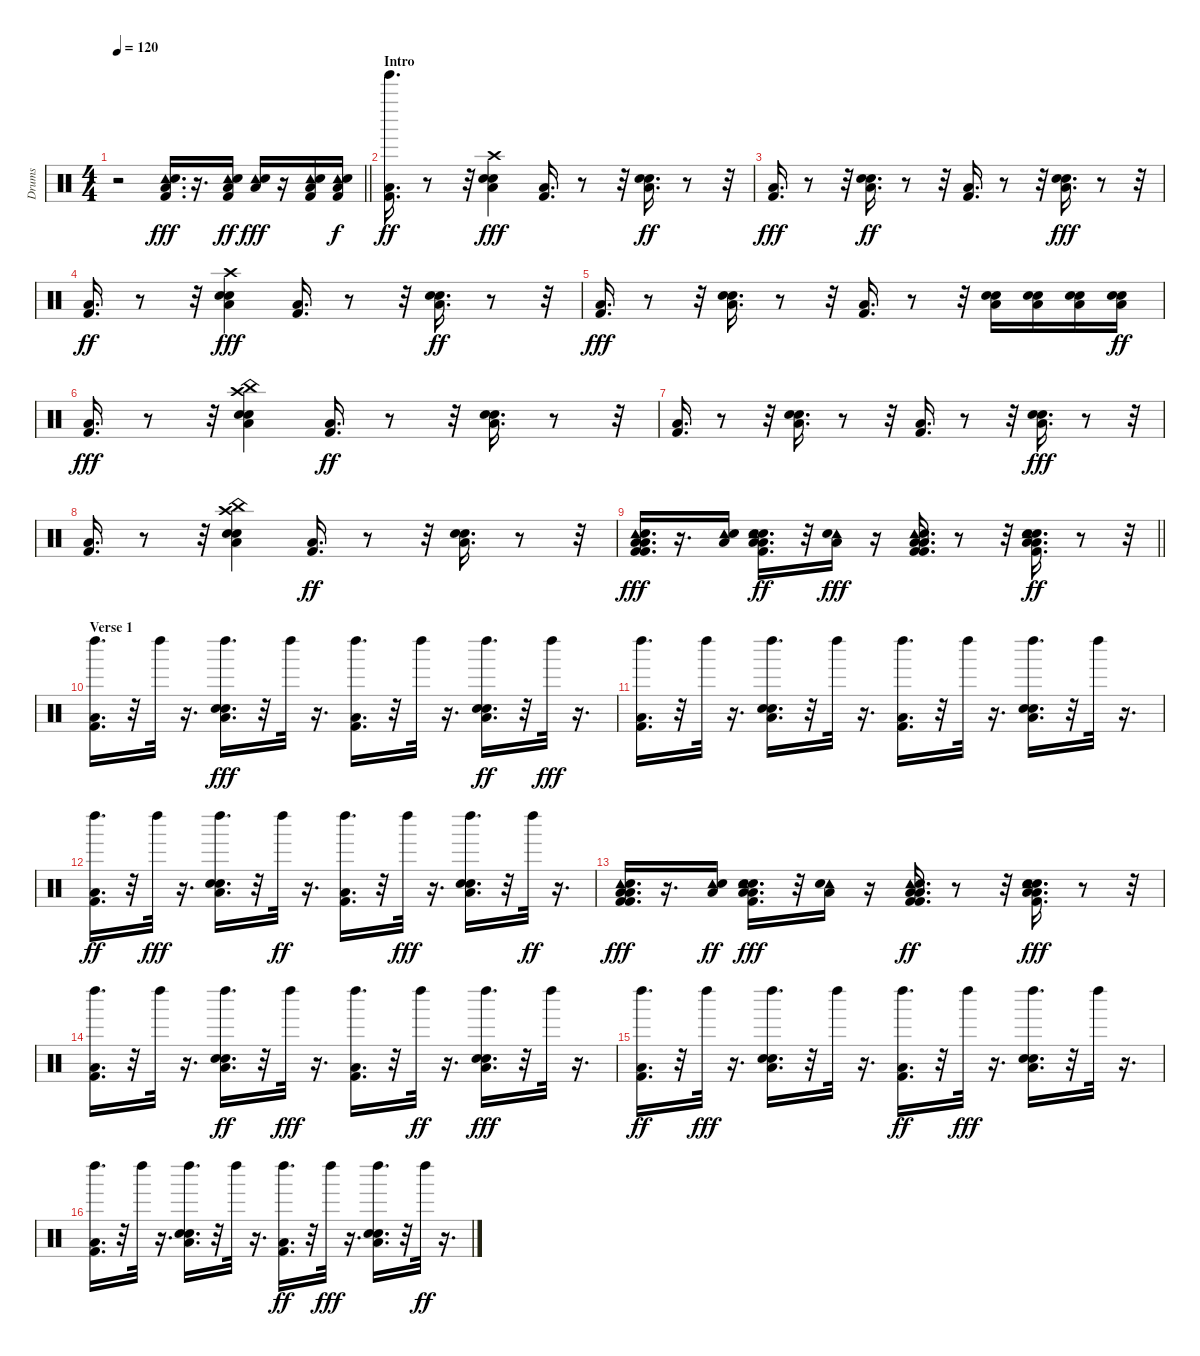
\track ("Drums" "Drums") {instrument percussion}
\staff {score}
\articulation defaults
\ts (4 4)
\tempo 120
\clef neutral
\barLineRight lightlight
\ks c
r.2{dy fff} ("Tambourine (hit)" "Low Floor Tom (hit)" "Snare (hit) 2" "Kick (hit) 2").16{d} r.16{d} ("Tambourine (hit)" "Low Floor Tom (hit)" "Snare (hit) 2" "Kick (hit) 2").16{dy ff} ("Tambourine (hit)" "Snare (hit) 2" "Low Floor Tom (hit)").16{dy fff} r.16 ("Tambourine (hit)" "Kick (hit) 2" "Snare (hit) 2" "Low Floor Tom (hit)").16 ("Tambourine (hit)" "Kick (hit) 2" "Snare (hit) 2" "Low Floor Tom (hit)").16{dy f} |
\section ("" "Intro")
("Tinkle Bell (hit)" "Low Floor Tom (hit)" "Kick (hit) 2").16{d dy ff} r.8 r.32 ("Crash high (hit)" "Electric Snare (hit)" "Low Floor Tom (hit)" "Snare (hit) 2").4{dy fff} ("Low Floor Tom (hit)" "Kick (hit) 2").16{d} r.8 r.32 ("Electric Snare (hit)" "Low Floor Tom (hit)" "Snare (hit) 2").16{d dy ff} r.8 r.32 |
("Low Floor Tom (hit)" "Kick (hit) 2").16{d dy fff} r.8 r.32 ("Electric Snare (hit)" "Low Floor Tom (hit)" "Snare (hit) 2").16{d dy ff} r.8 r.32 ("Low Floor Tom (hit)" "Kick (hit) 2").16{d} r.8 r.32 ("Electric Snare (hit)" "Low Floor Tom (hit)" "Snare (hit) 2").16{d dy fff} r.8 r.32 |
("Low Floor Tom (hit)" "Kick (hit) 2").16{d dy ff} r.8 r.32 ("Crash high (hit)" "Electric Snare (hit)" "Low Floor Tom (hit)" "Snare (hit) 2").4{dy fff} ("Low Floor Tom (hit)" "Kick (hit) 2").16{d} r.8 r.32 ("Electric Snare (hit)" "Low Floor Tom (hit)" "Snare (hit) 2").16{d dy ff} r.8 r.32 |
("Low Floor Tom (hit)" "Kick (hit) 2").16{d dy fff} r.8 r.32 ("Electric Snare (hit)" "Low Floor Tom (hit)" "Snare (hit) 2").16{d} r.8 r.32 ("Low Floor Tom (hit)" "Kick (hit) 2").16{d} r.8 r.32 ("Electric Snare (hit)" "Low Floor Tom (hit)" "Snare (hit) 2").16 ("Electric Snare (hit)" "Snare (hit) 2" "Low Floor Tom (hit)").16 ("Electric Snare (hit)" "Low Floor Tom (hit)" "Snare (hit) 2").16 ("Low Floor Tom (hit)" "Electric Snare (hit)" "Snare (hit) 2").16{dy ff} |
("Low Floor Tom (hit)" "Kick (hit) 2").16{d dy fff} r.8 r.32 ("Crash high (hit)" "China (hit)" "Electric Snare (hit)" "Low Floor Tom (hit)" "Snare (hit) 2").4 ("Low Floor Tom (hit)" "Kick (hit) 2").16{d dy ff} r.8 r.32 ("Electric Snare (hit)" "Low Floor Tom (hit)" "Snare (hit) 2").16{d} r.8 r.32 |
("Low Floor Tom (hit)" "Kick (hit) 2").16{d} r.8 r.32 ("Electric Snare (hit)" "Low Floor Tom (hit)" "Snare (hit) 2").16{d} r.8 r.32 ("Low Floor Tom (hit)" "Kick (hit) 2").16{d} r.8 r.32 ("Electric Snare (hit)" "Low Floor Tom (hit)" "Snare (hit) 2").16{d dy fff} r.8 r.32 |
("Low Floor Tom (hit)" "Kick (hit) 2").16{d} r.8 r.32 ("Crash high (hit)" "China (hit)" "Electric Snare (hit)" "Low Floor Tom (hit)" "Snare (hit) 2").4 ("Low Floor Tom (hit)" "Kick (hit) 2").16{d dy ff} r.8 r.32 ("Electric Snare (hit)" "Low Floor Tom (hit)" "Snare (hit) 2").16{d} r.8 r.32 |
\barLineRight lightlight
("Low Floor Tom (hit)" "Kick (hit) 2" "Tambourine (hit)" "Low Floor Tom (hit)" "Kick (hit) 2" "Snare (hit) 2").16{d dy fff} r.16{d} ("Tambourine (hit)" "Low Floor Tom (hit)" "Snare (hit) 2").16 ("Electric Snare (hit)" "Low Floor Tom (hit)" "Snare (hit) 2" "Tambourine (hit)" "Low Floor Tom (hit)" "Kick (hit) 2").16{d dy ff} r.32 ("Tambourine (hit)" "Low Floor Tom (hit)" "Snare (hit) 2").16{dy fff} r.16 ("Low Floor Tom (hit)" "Kick (hit) 2" "Tambourine (hit)" "Low Floor Tom (hit)" "Kick (hit) 2" "Snare (hit) 2").16{d} r.8 r.32 ("Electric Snare (hit)" "Low Floor Tom (hit)" "Snare (hit) 2" "Tambourine (hit)" "Kick (hit) 2" "Low Floor Tom (hit)").16{d dy ff} r.8 r.32 |
\section ("" "Verse 1")
("Left Maraca (hit)" "Low Floor Tom (hit)" "Kick (hit) 2").16{d} r.32 "Left Maraca (hit)".32 r.16{d} ("Left Maraca (hit)" "Electric Snare (hit)" "Low Floor Tom (hit)" "Snare (hit) 2").16{d dy fff} r.32 "Left Maraca (hit)".32 r.16{d} ("Left Maraca (hit)" "Low Floor Tom (hit)" "Kick (hit) 2").16{d} r.32 "Left Maraca (hit)".32 r.16{d} ("Left Maraca (hit)" "Electric Snare (hit)" "Low Floor Tom (hit)" "Snare (hit) 2").16{d dy ff} r.32 "Left Maraca (hit)".32{dy fff} r.16{d} |
("Left Maraca (hit)" "Low Floor Tom (hit)" "Kick (hit) 2").16{d} r.32 "Left Maraca (hit)".32 r.16{d} ("Left Maraca (hit)" "Electric Snare (hit)" "Low Floor Tom (hit)" "Snare (hit) 2").16{d} r.32 "Left Maraca (hit)".32 r.16{d} ("Left Maraca (hit)" "Low Floor Tom (hit)" "Kick (hit) 2").16{d} r.32 "Left Maraca (hit)".32 r.16{d} ("Left Maraca (hit)" "Electric Snare (hit)" "Low Floor Tom (hit)" "Snare (hit) 2").16{d} r.32 "Left Maraca (hit)".32 r.16{d} |
("Left Maraca (hit)" "Low Floor Tom (hit)" "Kick (hit) 2").16{d dy ff} r.32 "Left Maraca (hit)".32{dy fff} r.16{d} ("Left Maraca (hit)" "Electric Snare (hit)" "Low Floor Tom (hit)" "Snare (hit) 2").16{d} r.32 "Left Maraca (hit)".32{dy ff} r.16{d} ("Left Maraca (hit)" "Low Floor Tom (hit)" "Kick (hit) 2").16{d} r.32 "Left Maraca (hit)".32{dy fff} r.16{d} ("Left Maraca (hit)" "Electric Snare (hit)" "Low Floor Tom (hit)" "Snare (hit) 2").16{d} r.32 "Left Maraca (hit)".32{dy ff} r.16{d} |
("Low Floor Tom (hit)" "Kick (hit) 2" "Tambourine (hit)" "Low Floor Tom (hit)" "Kick (hit) 2" "Snare (hit) 2").16{d dy fff} r.16{d} ("Tambourine (hit)" "Low Floor Tom (hit)" "Snare (hit) 2").16{dy ff} ("Electric Snare (hit)" "Low Floor Tom (hit)" "Snare (hit) 2" "Tambourine (hit)" "Low Floor Tom (hit)" "Kick (hit) 2").16{d dy fff} r.32 ("Tambourine (hit)" "Low Floor Tom (hit)" "Snare (hit) 2").16 r.16 ("Low Floor Tom (hit)" "Kick (hit) 2" "Tambourine (hit)" "Low Floor Tom (hit)" "Kick (hit) 2" "Snare (hit) 2").16{d dy ff} r.8 r.32 ("Electric Snare (hit)" "Low Floor Tom (hit)" "Snare (hit) 2" "Tambourine (hit)" "Kick (hit) 2" "Low Floor Tom (hit)").16{d dy fff} r.8 r.32 |
("Left Maraca (hit)" "Low Floor Tom (hit)" "Kick (hit) 2").16{d} r.32 "Left Maraca (hit)".32 r.16{d} ("Left Maraca (hit)" "Electric Snare (hit)" "Low Floor Tom (hit)" "Snare (hit) 2").16{d dy ff} r.32 "Left Maraca (hit)".32{dy fff} r.16{d} ("Left Maraca (hit)" "Low Floor Tom (hit)" "Kick (hit) 2").16{d} r.32 "Left Maraca (hit)".32{dy ff} r.16{d} ("Left Maraca (hit)" "Electric Snare (hit)" "Low Floor Tom (hit)" "Snare (hit) 2").16{d dy fff} r.32 "Left Maraca (hit)".32 r.16{d} |
("Left Maraca (hit)" "Low Floor Tom (hit)" "Kick (hit) 2").16{d dy ff} r.32 "Left Maraca (hit)".32{dy fff} r.16{d} ("Left Maraca (hit)" "Electric Snare (hit)" "Low Floor Tom (hit)" "Snare (hit) 2").16{d} r.32 "Left Maraca (hit)".32 r.16{d} ("Left Maraca (hit)" "Low Floor Tom (hit)" "Kick (hit) 2").16{d dy ff} r.32 "Left Maraca (hit)".32{dy fff} r.16{d} ("Left Maraca (hit)" "Electric Snare (hit)" "Low Floor Tom (hit)" "Snare (hit) 2").16{d} r.32 "Left Maraca (hit)".32 r.16{d} |
("Left Maraca (hit)" "Low Floor Tom (hit)" "Kick (hit) 2").16{d} r.32 "Left Maraca (hit)".32 r.16{d} ("Left Maraca (hit)" "Electric Snare (hit)" "Low Floor Tom (hit)" "Snare (hit) 2").16{d} r.32 "Left Maraca (hit)".32 r.16{d} ("Left Maraca (hit)" "Low Floor Tom (hit)" "Kick (hit) 2").16{d dy ff} r.32 "Left Maraca (hit)".32{dy fff} r.16{d} ("Left Maraca (hit)" "Electric Snare (hit)" "Low Floor Tom (hit)" "Snare (hit) 2").16{d} r.32 "Left Maraca (hit)".32{dy ff} r.16{d}
